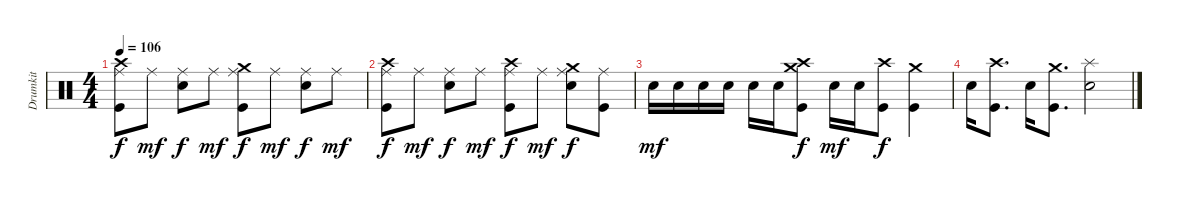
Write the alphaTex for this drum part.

\track ("Drumkit" "Drumkit") {instrument percussion}
\staff {score}
\articulation defaults
\ts (4 4)
\tempo 106
\clef neutral
\ks c
("Kick (hit)" "Crash high (hit)" "Ride (middle)").8{dy f} "Ride (middle)".8{dy mf} ("Ride (middle)" "Snare (hit) 2").8{dy f} "Ride (middle)".8{dy mf} ("Kick (hit)" "Crash medium (hit)" "Ride (middle)").8{dy f} "Ride (middle)".8{dy mf} ("Ride (middle)" "Snare (hit) 2").8{dy f} "Ride (middle)".8{dy mf} |
("Kick (hit)" "Crash high (hit)" "Ride (middle)").8{dy f} "Ride (middle)".8{dy mf} ("Ride (middle)" "Snare (hit) 2").8{dy f} "Ride (middle)".8{dy mf} ("Kick (hit)" "Crash high (hit)" "Ride (middle)").8{dy f} "Ride (middle)".8{dy mf} ("Crash medium (hit)" "Ride (middle)" "Snare (hit) 2").8{dy f} ("Kick (hit)" "Ride (middle)").8 |
"Snare (hit) 2".16{dy mf} "Snare (hit) 2".16 "Snare (hit) 2".16 "Snare (hit) 2".16 "Snare (hit) 2".16 "Snare (hit) 2".16 ("Kick (hit)" "Crash high (hit)" "Crash medium (hit)").8{dy f} "Snare (hit) 2".16{dy mf} "Snare (hit) 2".16 ("Kick (hit)" "Crash high (hit)").8{dy f} ("Kick (hit)" "Crash medium (hit)").4 |
"Snare (hit) 2".16 ("Kick (hit)" "Crash high (hit)").8{d} "Snare (hit) 2".16 ("Kick (hit)" "Crash medium (hit)").8{d} ("Splash (hit)" "Snare (hit) 2").2
